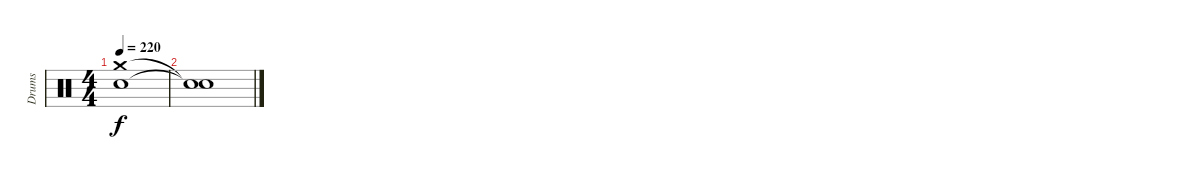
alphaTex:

\track ("Drums" "Drums") {instrument percussion}
\staff {score}
\articulation defaults
\ts (4 4)
\tempo 220
\clef neutral
\ks c
("Crash medium (hit)" "Electric Snare (hit)").1{dy f} |
("Snare (hit)"{t} "Snare (hit)"{t}).1
